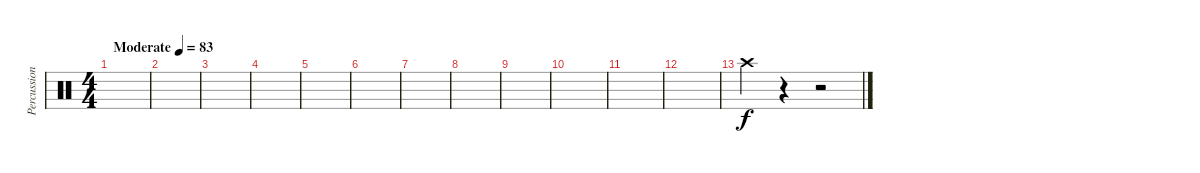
\track ("Percussion" "Percussion") {instrument percussion}
\staff {score}
\articulation defaults
\ts (4 4)
\tempo (83 "Moderate")
\clef neutral
\ks c
|
|
|
|
|
|
|
|
|
|
|
|
"Crash high (hit)".4 r.4 r.2
